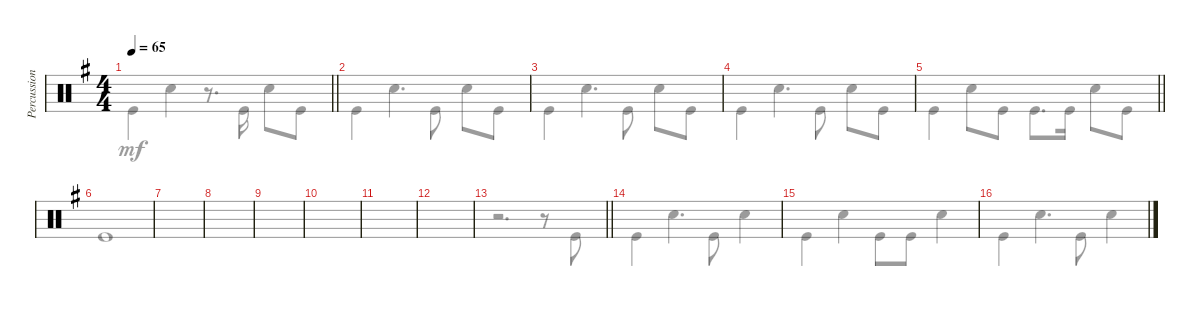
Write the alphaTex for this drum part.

\track ("Percussion" "Percussion") {instrument percussion}
\staff {score}
\articulation defaults
\voice
\ts (4 4)
\tempo 65
\clef neutral
\barLineRight lightlight
\ks eminor
|
|
|
|
\barLineRight lightlight
|
|
|
|
|
|
|
|
\barLineRight lightlight
|
|
|
\voice
\clef neutral
\barLineRight lightlight
\ks eminor "Kick (hit)".4{dy mf} "Snare (hit) 2".4
r.8{d} "Kick (hit)".16 "Snare (hit) 2".8 "Kick (hit)".8 |
"Kick (hit)".4 "Snare (hit) 2".4{d} "Kick (hit)".8 "Snare (hit) 2".8 "Kick (hit)".8 |
"Kick (hit)".4 "Snare (hit) 2".4{d} "Kick (hit)".8 "Snare (hit) 2".8 "Kick (hit)".8 |
"Kick (hit)".4 "Snare (hit) 2".4{d} "Kick (hit)".8 "Snare (hit) 2".8 "Kick (hit)".8 |
\barLineRight lightlight "Kick (hit)".4 "Snare (hit) 2".8 "Kick (hit)".8 "Kick (hit)".8{d} "Kick (hit)".16 "Snare (hit) 2".8 "Kick (hit)".8
|
"Kick (hit)".1 |
|
|
|
|
|
|
\barLineRight lightlight
r.2{d} r.8 "Kick (hit)".8 |
"Kick (hit)".4 "Snare (hit) 2".4{d} "Kick (hit)".8 "Snare (hit) 2".4 |
"Kick (hit)".4 "Snare (hit) 2".4 "Kick (hit)".8 "Kick (hit)".8 "Snare (hit) 2".4 |
"Kick (hit)".4 "Snare (hit) 2".4{d} "Kick (hit)".8 "Snare (hit) 2".4
